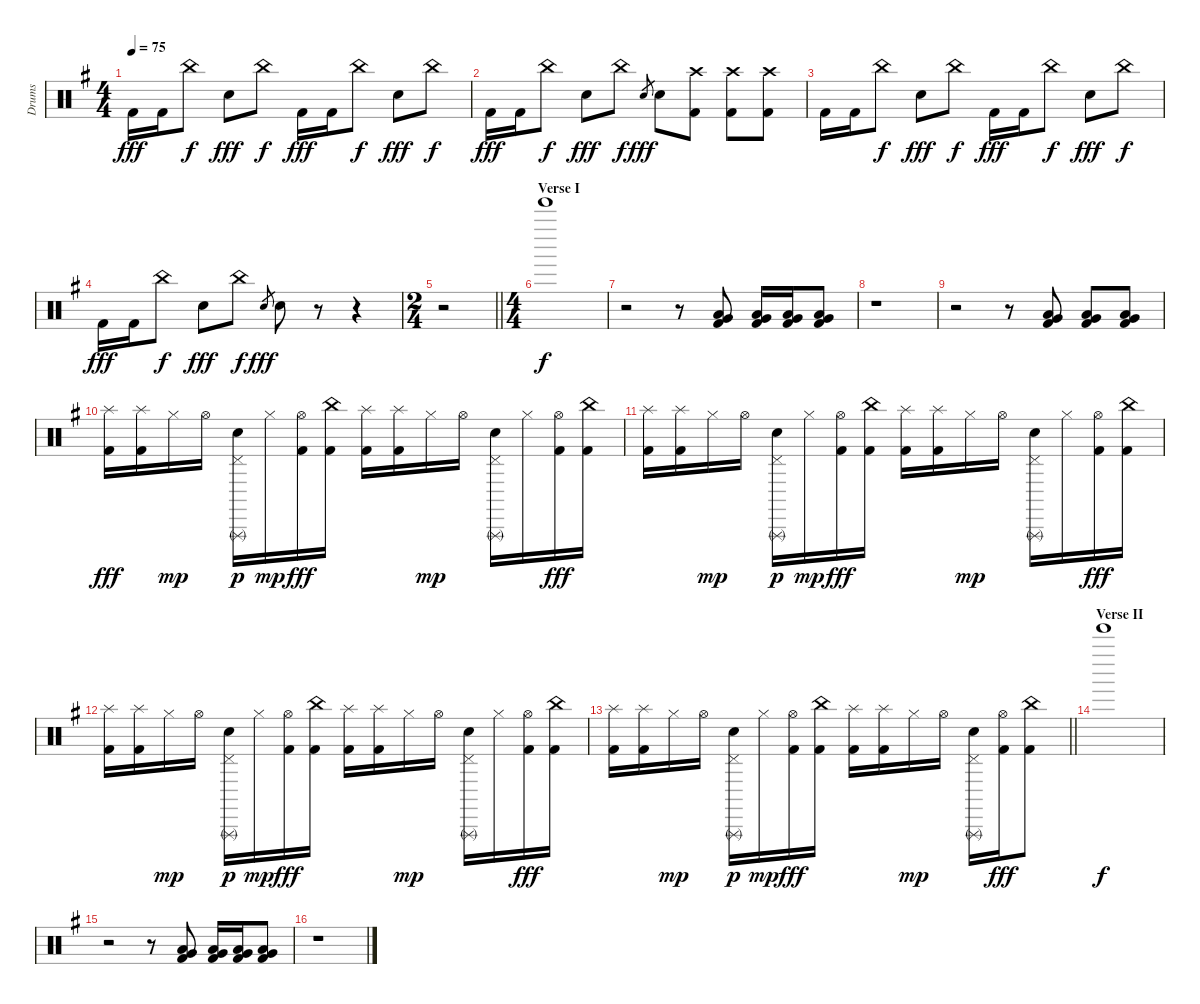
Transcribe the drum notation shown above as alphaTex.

\track ("Drums" "Drums") {instrument percussion}
\staff {score}
\articulation defaults
\ts (4 4)
\tempo 75
\clef neutral
\ks eminor "Kick (hit) 2".16{dy fff} "Kick (hit) 2".16 "China (hit)".8{dy f} "Snare (hit) 2".8{dy fff} "China (hit)".8{dy f} "Kick (hit) 2".16{dy fff} "Kick (hit) 2".16 "China (hit)".8{dy f} "Snare (hit) 2".8{dy fff} "China (hit)".8{dy f}
|
"Kick (hit) 2".16{dy fff} "Kick (hit) 2".16 "China (hit)".8{dy f} "Snare (hit) 2".8{dy fff} "China (hit)".8{dy f} "Snare (hit) 2".8{gr dy fff} "Snare (hit) 2".8 ("Crash high (hit)" "Kick (hit) 2").8 ("Crash high (hit)" "Kick (hit) 2").8 ("Crash high (hit)" "Kick (hit) 2").8 |
"Kick (hit) 2".16 "Kick (hit) 2".16 "China (hit)".8{dy f} "Snare (hit) 2".8{dy fff} "China (hit)".8{dy f} "Kick (hit) 2".16{dy fff} "Kick (hit) 2".16 "China (hit)".8{dy f} "Snare (hit) 2".8{dy fff} "China (hit)".8{dy f} |
"Kick (hit) 2".16{dy fff} "Kick (hit) 2".16 "China (hit)".8{dy f} "Snare (hit) 2".8{dy fff} "China (hit)".8{dy f} "Snare (hit) 2".8{gr dy fff} "Snare (hit) 2".8 r.8 r.4 |
\ts (2 4)
\barLineRight lightlight
r.2 |
\ts (4 4)
\section ("" "Verse I")
"Tinkle Bell (hit)".1{dy f} |
r.2 r.8 ("Low Tom (hit)" "Very Low Tom (hit)" "Kick (hit) 2").8 ("Low Tom (hit)" "Very Low Tom (hit)" "Kick (hit) 2").16 ("Low Tom (hit)" "Very Low Tom (hit)" "Kick (hit) 2").16 ("Low Tom (hit)" "Very Low Tom (hit)" "Kick (hit) 2").8 |
r.1 |
r.2 r.8 ("Low Tom (hit)" "Very Low Tom (hit)" "Kick (hit) 2").8 ("Low Tom (hit)" "Very Low Tom (hit)" "Kick (hit) 2").8 ("Low Tom (hit)" "Very Low Tom (hit)" "Kick (hit) 2").8 |
("Splash (hit)" "Kick (hit) 2").16{dy fff} ("Splash (hit)" "Kick (hit) 2").16 "Hi-Hat (closed)".16{dy mp} "Hi-Hat (open)".16 ("Pedal Hi-Hat (hit)" "Triangle (rnute)" "Electric Snare (hit)").16{dy p} "Hi-Hat (closed)".16{dy mp} ("Hi-Hat (open)" "Kick (hit) 2").16{dy fff} ("China (hit)" "Kick (hit) 2").16 ("Splash (hit)" "Kick (hit) 2").16 ("Splash (hit)" "Kick (hit) 2").16 "Hi-Hat (closed)".16{dy mp} "Hi-Hat (open)".16 ("Pedal Hi-Hat (hit)" "Triangle (rnute)" "Electric Snare (hit)").16 "Hi-Hat (closed)".16 ("Hi-Hat (open)" "Kick (hit) 2").16{dy fff} ("China (hit)" "Kick (hit) 2").16 |
("Splash (hit)" "Kick (hit) 2").16 ("Splash (hit)" "Kick (hit) 2").16 "Hi-Hat (closed)".16{dy mp} "Hi-Hat (open)".16 ("Pedal Hi-Hat (hit)" "Triangle (rnute)" "Electric Snare (hit)").16{dy p} "Hi-Hat (closed)".16{dy mp} ("Hi-Hat (open)" "Kick (hit) 2").16{dy fff} ("China (hit)" "Kick (hit) 2").16 ("Splash (hit)" "Kick (hit) 2").16 ("Splash (hit)" "Kick (hit) 2").16 "Hi-Hat (closed)".16{dy mp} "Hi-Hat (open)".16 ("Pedal Hi-Hat (hit)" "Triangle (rnute)" "Electric Snare (hit)").16 "Hi-Hat (closed)".16 ("Hi-Hat (open)" "Kick (hit) 2").16{dy fff} ("China (hit)" "Kick (hit) 2").16 |
("Splash (hit)" "Kick (hit) 2").16 ("Splash (hit)" "Kick (hit) 2").16 "Hi-Hat (closed)".16{dy mp} "Hi-Hat (open)".16 ("Pedal Hi-Hat (hit)" "Triangle (rnute)" "Electric Snare (hit)").16{dy p} "Hi-Hat (closed)".16{dy mp} ("Hi-Hat (open)" "Kick (hit) 2").16{dy fff} ("China (hit)" "Kick (hit) 2").16 ("Splash (hit)" "Kick (hit) 2").16 ("Splash (hit)" "Kick (hit) 2").16 "Hi-Hat (closed)".16{dy mp} "Hi-Hat (open)".16 ("Pedal Hi-Hat (hit)" "Triangle (rnute)" "Electric Snare (hit)").16 "Hi-Hat (closed)".16 ("Hi-Hat (open)" "Kick (hit) 2").16{dy fff} ("China (hit)" "Kick (hit) 2").16 |
\barLineRight lightlight
("Splash (hit)" "Kick (hit) 2").16 ("Splash (hit)" "Kick (hit) 2").16 "Hi-Hat (closed)".16{dy mp} "Hi-Hat (open)".16 ("Pedal Hi-Hat (hit)" "Triangle (rnute)" "Electric Snare (hit)").16{dy p} "Hi-Hat (closed)".16{dy mp} ("Hi-Hat (open)" "Kick (hit) 2").16{dy fff} ("China (hit)" "Kick (hit) 2").16 ("Splash (hit)" "Kick (hit) 2").16 ("Splash (hit)" "Kick (hit) 2").16 "Hi-Hat (closed)".16{dy mp} "Hi-Hat (open)".16 ("Pedal Hi-Hat (hit)" "Triangle (rnute)" "Electric Snare (hit)").16 ("Hi-Hat (open)" "Kick (hit) 2").16{dy fff} ("China (hit)" "Kick (hit) 2").8 |
\section ("" "Verse II")
"Tinkle Bell (hit)".1{dy f} |
r.2 r.8 ("Low Tom (hit)" "Very Low Tom (hit)" "Kick (hit) 2").8 ("Low Tom (hit)" "Very Low Tom (hit)" "Kick (hit) 2").16 ("Low Tom (hit)" "Very Low Tom (hit)" "Kick (hit) 2").16 ("Low Tom (hit)" "Very Low Tom (hit)" "Kick (hit) 2").8 |
r.1
